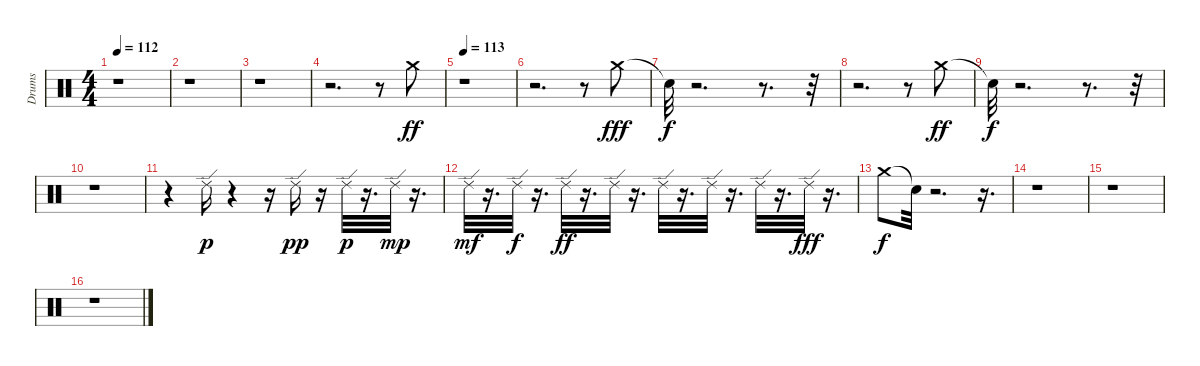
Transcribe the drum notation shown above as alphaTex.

\track ("Drums" "Drums") {instrument percussion}
\staff {score}
\articulation defaults
\ts (4 4)
\tempo 112
\clef neutral
\ks c
r.1{dy fff} |
r.1 |
r.1 |
r.2{d} r.8 "Crash medium (hit)".8{dy ff} |
\tempo 113
r.1 |
r.2{d} r.8 "Crash medium (hit)".8{dy fff} |
"Snare (hit)"{t}.32{dy f} r.2{d} r.8{d} r.32 |
r.2{d} r.8 "Crash medium (hit)".8{dy ff} |
"Snare (hit)"{t}.32{dy f} r.2{d} r.8{d} r.32 |
r.1 |
r.4 "Ride (edge) 2".16{dy p} r.4 r.16 "Ride (edge) 2".16{dy pp} r.16 "Ride (edge) 2".32{dy p} r.16{d} "Ride (edge) 2".32{dy mp} r.16{d} |
"Ride (edge) 2".32{dy mf} r.16{d} "Ride (edge) 2".32{dy f} r.16{d} "Ride (edge) 2".32{dy ff} r.16{d} "Ride (edge) 2".32 r.16{d} "Ride (edge) 2".32 r.16{d} "Ride (edge) 2".32 r.16{d} "Ride (edge) 2".32 r.16{d} "Ride (edge) 2".32{dy fff} r.16{d} |
"Crash medium (hit)".8{dy f} "Snare (hit)"{t}.32 r.2{d} r.16{d} |
r.1 |
r.1 |
r.1
